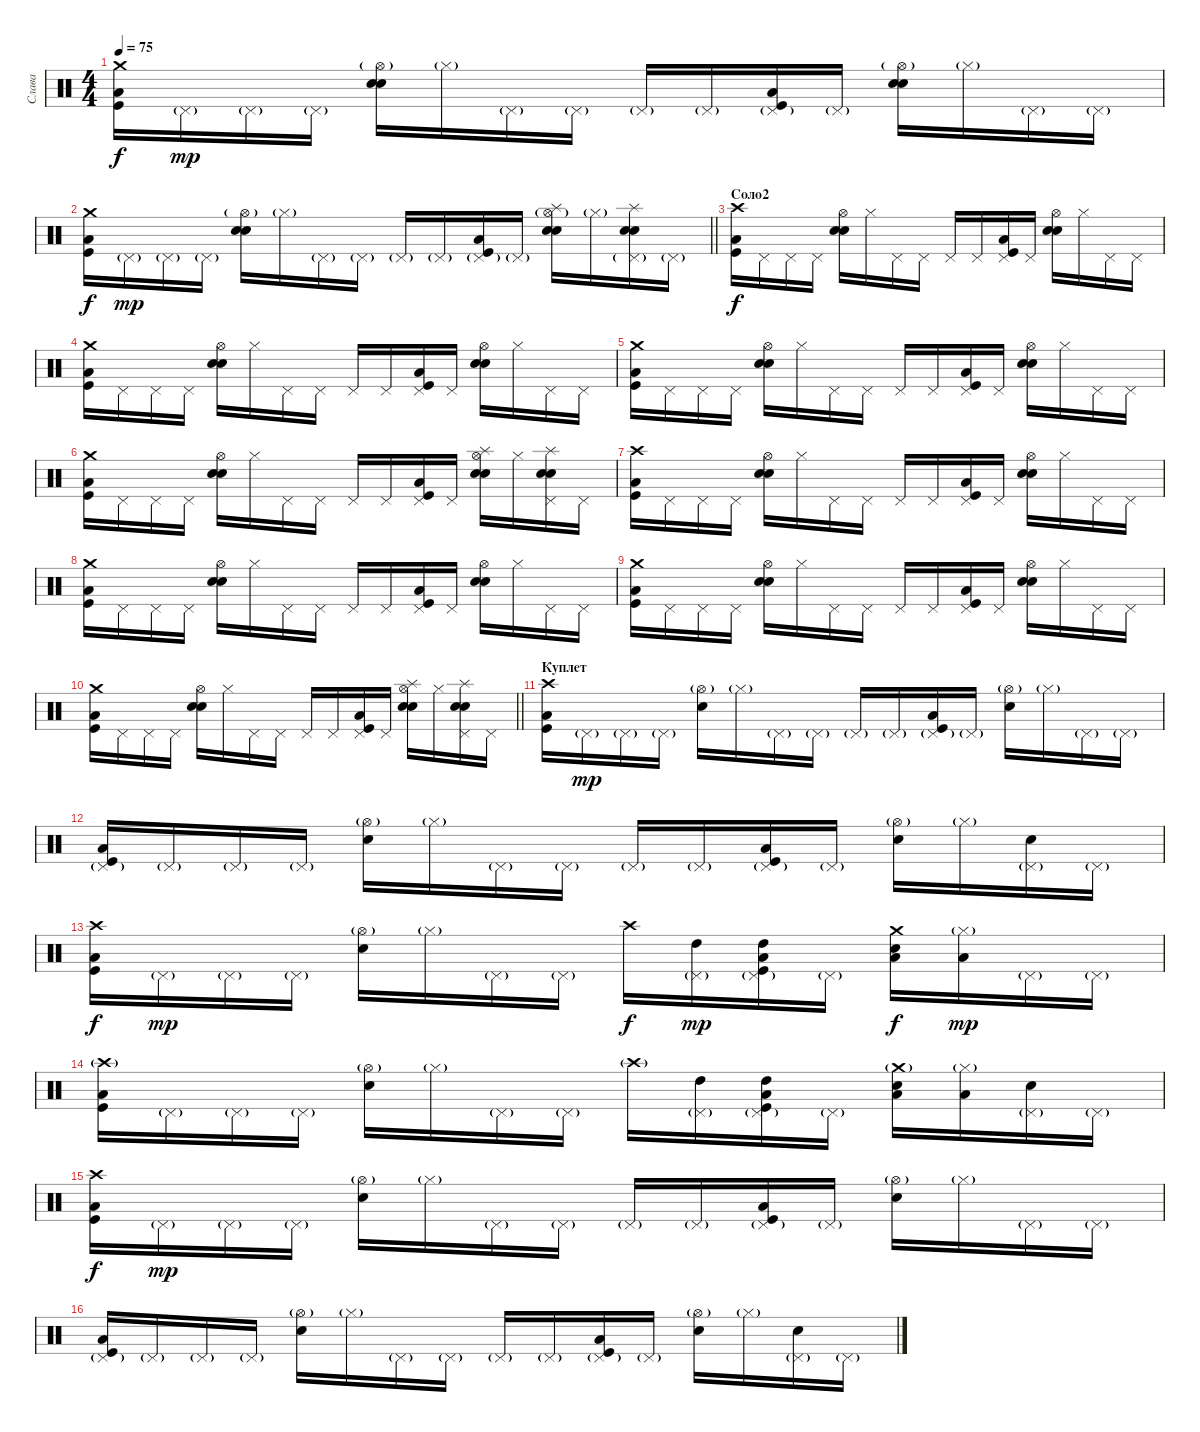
\track ("Слава" "Слава") {instrument percussion}
\staff {score}
\articulation defaults
\ts (4 4)
\tempo 75
\clef neutral
\ks c
("Crash medium (hit)" "Low Tom (hit)" "Kick (hit)").16{dy f} "Pedal Hi-Hat (hit)"{g}.16{dy mp} "Pedal Hi-Hat (hit)"{g}.16 "Pedal Hi-Hat (hit)"{g}.16 ("Hi-Hat (open)"{g} "Electric Snare (hit)" "Snare (hit) 2").16 "Hi-Hat (closed)"{g}.16 "Pedal Hi-Hat (hit)"{g}.16 "Pedal Hi-Hat (hit)"{g}.16 "Pedal Hi-Hat (hit)"{g}.16 "Pedal Hi-Hat (hit)"{g}.16 ("Pedal Hi-Hat (hit)"{g} "Low Tom (hit)" "Kick (hit)").16 "Pedal Hi-Hat (hit)"{g}.16 ("Hi-Hat (open)"{g} "Electric Snare (hit)" "Snare (hit) 2").16 "Hi-Hat (closed)"{g}.16 "Pedal Hi-Hat (hit)"{g}.16 "Pedal Hi-Hat (hit)"{g}.16 |
\barLineRight lightlight
("Crash medium (hit)" "Low Tom (hit)" "Kick (hit)").16{dy f} "Pedal Hi-Hat (hit)"{g}.16{dy mp} "Pedal Hi-Hat (hit)"{g}.16 "Pedal Hi-Hat (hit)"{g}.16 ("Hi-Hat (open)"{g} "Electric Snare (hit)" "Snare (hit) 2").16 "Hi-Hat (closed)"{g}.16 "Pedal Hi-Hat (hit)"{g}.16 "Pedal Hi-Hat (hit)"{g}.16 "Pedal Hi-Hat (hit)"{g}.16 "Pedal Hi-Hat (hit)"{g}.16 ("Pedal Hi-Hat (hit)"{g} "Low Tom (hit)" "Kick (hit)").16 "Pedal Hi-Hat (hit)"{g}.16 ("Hi-Hat (open)"{g} "Splash (hit)" "Electric Snare (hit)" "Snare (hit) 2").16 "Hi-Hat (closed)"{g}.16 ("Pedal Hi-Hat (hit)"{g} "Splash (hit)" "Electric Snare (hit)" "Snare (hit) 2").16 "Pedal Hi-Hat (hit)"{g}.16 |
\section ("" "Соло2")
("Crash high (hit)" "Low Tom (hit)" "Kick (hit)").16{dy f} "Pedal Hi-Hat (hit)".16 "Pedal Hi-Hat (hit)".16 "Pedal Hi-Hat (hit)".16 ("Hi-Hat (open)" "Electric Snare (hit)" "Snare (hit) 2").16 "Hi-Hat (closed)".16 "Pedal Hi-Hat (hit)".16 "Pedal Hi-Hat (hit)".16 "Pedal Hi-Hat (hit)".16 "Pedal Hi-Hat (hit)".16 ("Pedal Hi-Hat (hit)" "Low Tom (hit)" "Kick (hit)").16 "Pedal Hi-Hat (hit)".16 ("Hi-Hat (open)" "Electric Snare (hit)" "Snare (hit) 2").16 "Hi-Hat (closed)".16 "Pedal Hi-Hat (hit)".16 "Pedal Hi-Hat (hit)".16 |
("Crash medium (hit)" "Low Tom (hit)" "Kick (hit)").16 "Pedal Hi-Hat (hit)".16 "Pedal Hi-Hat (hit)".16 "Pedal Hi-Hat (hit)".16 ("Hi-Hat (open)" "Electric Snare (hit)" "Snare (hit) 2").16 "Hi-Hat (closed)".16 "Pedal Hi-Hat (hit)".16 "Pedal Hi-Hat (hit)".16 "Pedal Hi-Hat (hit)".16 "Pedal Hi-Hat (hit)".16 ("Pedal Hi-Hat (hit)" "Low Tom (hit)" "Kick (hit)").16 "Pedal Hi-Hat (hit)".16 ("Hi-Hat (open)" "Electric Snare (hit)" "Snare (hit) 2").16 "Hi-Hat (closed)".16 "Pedal Hi-Hat (hit)".16 "Pedal Hi-Hat (hit)".16 |
("Crash medium (hit)" "Low Tom (hit)" "Kick (hit)").16 "Pedal Hi-Hat (hit)".16 "Pedal Hi-Hat (hit)".16 "Pedal Hi-Hat (hit)".16 ("Hi-Hat (open)" "Electric Snare (hit)" "Snare (hit) 2").16 "Hi-Hat (closed)".16 "Pedal Hi-Hat (hit)".16 "Pedal Hi-Hat (hit)".16 "Pedal Hi-Hat (hit)".16 "Pedal Hi-Hat (hit)".16 ("Pedal Hi-Hat (hit)" "Low Tom (hit)" "Kick (hit)").16 "Pedal Hi-Hat (hit)".16 ("Hi-Hat (open)" "Electric Snare (hit)" "Snare (hit) 2").16 "Hi-Hat (closed)".16 "Pedal Hi-Hat (hit)".16 "Pedal Hi-Hat (hit)".16 |
("Crash medium (hit)" "Low Tom (hit)" "Kick (hit)").16 "Pedal Hi-Hat (hit)".16 "Pedal Hi-Hat (hit)".16 "Pedal Hi-Hat (hit)".16 ("Hi-Hat (open)" "Electric Snare (hit)" "Snare (hit) 2").16 "Hi-Hat (closed)".16 "Pedal Hi-Hat (hit)".16 "Pedal Hi-Hat (hit)".16 "Pedal Hi-Hat (hit)".16 "Pedal Hi-Hat (hit)".16 ("Pedal Hi-Hat (hit)" "Low Tom (hit)" "Kick (hit)").16 "Pedal Hi-Hat (hit)".16 ("Hi-Hat (open)" "Splash (hit)" "Electric Snare (hit)" "Snare (hit) 2").16 "Hi-Hat (closed)".16 ("Pedal Hi-Hat (hit)" "Splash (hit)" "Electric Snare (hit)" "Snare (hit) 2").16 "Pedal Hi-Hat (hit)".16 |
("Crash high (hit)" "Low Tom (hit)" "Kick (hit)").16 "Pedal Hi-Hat (hit)".16 "Pedal Hi-Hat (hit)".16 "Pedal Hi-Hat (hit)".16 ("Hi-Hat (open)" "Electric Snare (hit)" "Snare (hit) 2").16 "Hi-Hat (closed)".16 "Pedal Hi-Hat (hit)".16 "Pedal Hi-Hat (hit)".16 "Pedal Hi-Hat (hit)".16 "Pedal Hi-Hat (hit)".16 ("Pedal Hi-Hat (hit)" "Low Tom (hit)" "Kick (hit)").16 "Pedal Hi-Hat (hit)".16 ("Hi-Hat (open)" "Electric Snare (hit)" "Snare (hit) 2").16 "Hi-Hat (closed)".16 "Pedal Hi-Hat (hit)".16 "Pedal Hi-Hat (hit)".16 |
("Crash medium (hit)" "Low Tom (hit)" "Kick (hit)").16 "Pedal Hi-Hat (hit)".16 "Pedal Hi-Hat (hit)".16 "Pedal Hi-Hat (hit)".16 ("Hi-Hat (open)" "Electric Snare (hit)" "Snare (hit) 2").16 "Hi-Hat (closed)".16 "Pedal Hi-Hat (hit)".16 "Pedal Hi-Hat (hit)".16 "Pedal Hi-Hat (hit)".16 "Pedal Hi-Hat (hit)".16 ("Pedal Hi-Hat (hit)" "Low Tom (hit)" "Kick (hit)").16 "Pedal Hi-Hat (hit)".16 ("Hi-Hat (open)" "Electric Snare (hit)" "Snare (hit) 2").16 "Hi-Hat (closed)".16 "Pedal Hi-Hat (hit)".16 "Pedal Hi-Hat (hit)".16 |
("Crash medium (hit)" "Low Tom (hit)" "Kick (hit)").16 "Pedal Hi-Hat (hit)".16 "Pedal Hi-Hat (hit)".16 "Pedal Hi-Hat (hit)".16 ("Hi-Hat (open)" "Electric Snare (hit)" "Snare (hit) 2").16 "Hi-Hat (closed)".16 "Pedal Hi-Hat (hit)".16 "Pedal Hi-Hat (hit)".16 "Pedal Hi-Hat (hit)".16 "Pedal Hi-Hat (hit)".16 ("Pedal Hi-Hat (hit)" "Low Tom (hit)" "Kick (hit)").16 "Pedal Hi-Hat (hit)".16 ("Hi-Hat (open)" "Electric Snare (hit)" "Snare (hit) 2").16 "Hi-Hat (closed)".16 "Pedal Hi-Hat (hit)".16 "Pedal Hi-Hat (hit)".16 |
\barLineRight lightlight
("Crash medium (hit)" "Low Tom (hit)" "Kick (hit)").16 "Pedal Hi-Hat (hit)".16 "Pedal Hi-Hat (hit)".16 "Pedal Hi-Hat (hit)".16 ("Hi-Hat (open)" "Electric Snare (hit)" "Snare (hit) 2").16 "Hi-Hat (closed)".16 "Pedal Hi-Hat (hit)".16 "Pedal Hi-Hat (hit)".16 "Pedal Hi-Hat (hit)".16 "Pedal Hi-Hat (hit)".16 ("Pedal Hi-Hat (hit)" "Low Tom (hit)" "Kick (hit)").16 "Pedal Hi-Hat (hit)".16 ("Hi-Hat (open)" "Splash (hit)" "Electric Snare (hit)" "Snare (hit) 2").16 "Hi-Hat (closed)".16 ("Pedal Hi-Hat (hit)" "Splash (hit)" "Electric Snare (hit)" "Snare (hit) 2").16 "Pedal Hi-Hat (hit)".16 |
\section ("" "Куплет")
("Crash high (hit)" "Low Tom (hit)" "Kick (hit)").16 "Pedal Hi-Hat (hit)"{g}.16{dy mp} "Pedal Hi-Hat (hit)"{g}.16 "Pedal Hi-Hat (hit)"{g}.16 ("Hi-Hat (open)"{g} "Snare (hit) 2").16 "Hi-Hat (closed)"{g}.16 "Pedal Hi-Hat (hit)"{g}.16 "Pedal Hi-Hat (hit)"{g}.16 "Pedal Hi-Hat (hit)"{g}.16 "Pedal Hi-Hat (hit)"{g}.16 ("Pedal Hi-Hat (hit)"{g} "Low Tom (hit)" "Kick (hit)").16 "Pedal Hi-Hat (hit)"{g}.16 ("Hi-Hat (open)"{g} "Snare (hit) 2").16 "Hi-Hat (closed)"{g}.16 "Pedal Hi-Hat (hit)"{g}.16 "Pedal Hi-Hat (hit)"{g}.16 |
("Pedal Hi-Hat (hit)"{g} "Low Tom (hit)" "Kick (hit)").16 "Pedal Hi-Hat (hit)"{g}.16 "Pedal Hi-Hat (hit)"{g}.16 "Pedal Hi-Hat (hit)"{g}.16 ("Hi-Hat (open)"{g} "Snare (hit) 2").16 "Hi-Hat (closed)"{g}.16 "Pedal Hi-Hat (hit)"{g}.16 "Pedal Hi-Hat (hit)"{g}.16 "Pedal Hi-Hat (hit)"{g}.16 "Pedal Hi-Hat (hit)"{g}.16 ("Pedal Hi-Hat (hit)"{g} "Low Tom (hit)" "Kick (hit)").16 "Pedal Hi-Hat (hit)"{g}.16 ("Hi-Hat (open)"{g} "Snare (hit) 2").16 "Hi-Hat (closed)"{g}.16 ("Pedal Hi-Hat (hit)"{g} "Snare (hit) 2").16 "Pedal Hi-Hat (hit)"{g}.16 |
("Crash high (hit)" "Low Tom (hit)" "Kick (hit)").16{dy f} "Pedal Hi-Hat (hit)"{g}.16{dy mp} "Pedal Hi-Hat (hit)"{g}.16 "Pedal Hi-Hat (hit)"{g}.16 ("Hi-Hat (open)"{g} "Snare (hit) 2").16 "Hi-Hat (closed)"{g}.16 "Pedal Hi-Hat (hit)"{g}.16 "Pedal Hi-Hat (hit)"{g}.16 "Crash high (hit)".16{dy f} ("Pedal Hi-Hat (hit)"{g} "High Tom (hit)").16{dy mp} ("Pedal Hi-Hat (hit)"{g} "High Tom (hit)" "Low Tom (hit)" "Kick (hit)").16 "Pedal Hi-Hat (hit)"{g}.16 ("Crash medium (hit)" "Low Tom (hit)" "Snare (hit) 2").16{dy f} ("Hi-Hat (closed)"{g} "Low Tom (hit)").16{dy mp} "Pedal Hi-Hat (hit)"{g}.16 "Pedal Hi-Hat (hit)"{g}.16 |
("Crash high (hit)"{g} "Low Tom (hit)" "Kick (hit)").16 "Pedal Hi-Hat (hit)"{g}.16 "Pedal Hi-Hat (hit)"{g}.16 "Pedal Hi-Hat (hit)"{g}.16 ("Hi-Hat (open)"{g} "Snare (hit) 2").16 "Hi-Hat (closed)"{g}.16 "Pedal Hi-Hat (hit)"{g}.16 "Pedal Hi-Hat (hit)"{g}.16 "Crash high (hit)"{g}.16 ("Pedal Hi-Hat (hit)"{g} "High Tom (hit)").16 ("Pedal Hi-Hat (hit)"{g} "High Tom (hit)" "Low Tom (hit)" "Kick (hit)").16 "Pedal Hi-Hat (hit)"{g}.16 ("Crash medium (hit)"{g} "Low Tom (hit)" "Snare (hit) 2").16 ("Hi-Hat (closed)"{g} "Low Tom (hit)").16 ("Pedal Hi-Hat (hit)"{g} "Snare (hit) 2").16 "Pedal Hi-Hat (hit)"{g}.16 |
("Crash high (hit)" "Low Tom (hit)" "Kick (hit)").16{dy f} "Pedal Hi-Hat (hit)"{g}.16{dy mp} "Pedal Hi-Hat (hit)"{g}.16 "Pedal Hi-Hat (hit)"{g}.16 ("Hi-Hat (open)"{g} "Snare (hit) 2").16 "Hi-Hat (closed)"{g}.16 "Pedal Hi-Hat (hit)"{g}.16 "Pedal Hi-Hat (hit)"{g}.16 "Pedal Hi-Hat (hit)"{g}.16 "Pedal Hi-Hat (hit)"{g}.16 ("Pedal Hi-Hat (hit)"{g} "Low Tom (hit)" "Kick (hit)").16 "Pedal Hi-Hat (hit)"{g}.16 ("Hi-Hat (open)"{g} "Snare (hit) 2").16 "Hi-Hat (closed)"{g}.16 "Pedal Hi-Hat (hit)"{g}.16 "Pedal Hi-Hat (hit)"{g}.16 |
("Pedal Hi-Hat (hit)"{g} "Low Tom (hit)" "Kick (hit)").16 "Pedal Hi-Hat (hit)"{g}.16 "Pedal Hi-Hat (hit)"{g}.16 "Pedal Hi-Hat (hit)"{g}.16 ("Hi-Hat (open)"{g} "Snare (hit) 2").16 "Hi-Hat (closed)"{g}.16 "Pedal Hi-Hat (hit)"{g}.16 "Pedal Hi-Hat (hit)"{g}.16 "Pedal Hi-Hat (hit)"{g}.16 "Pedal Hi-Hat (hit)"{g}.16 ("Pedal Hi-Hat (hit)"{g} "Low Tom (hit)" "Kick (hit)").16 "Pedal Hi-Hat (hit)"{g}.16 ("Hi-Hat (open)"{g} "Snare (hit) 2").16 "Hi-Hat (closed)"{g}.16 ("Pedal Hi-Hat (hit)"{g} "Snare (hit) 2").16 "Pedal Hi-Hat (hit)"{g}.16
